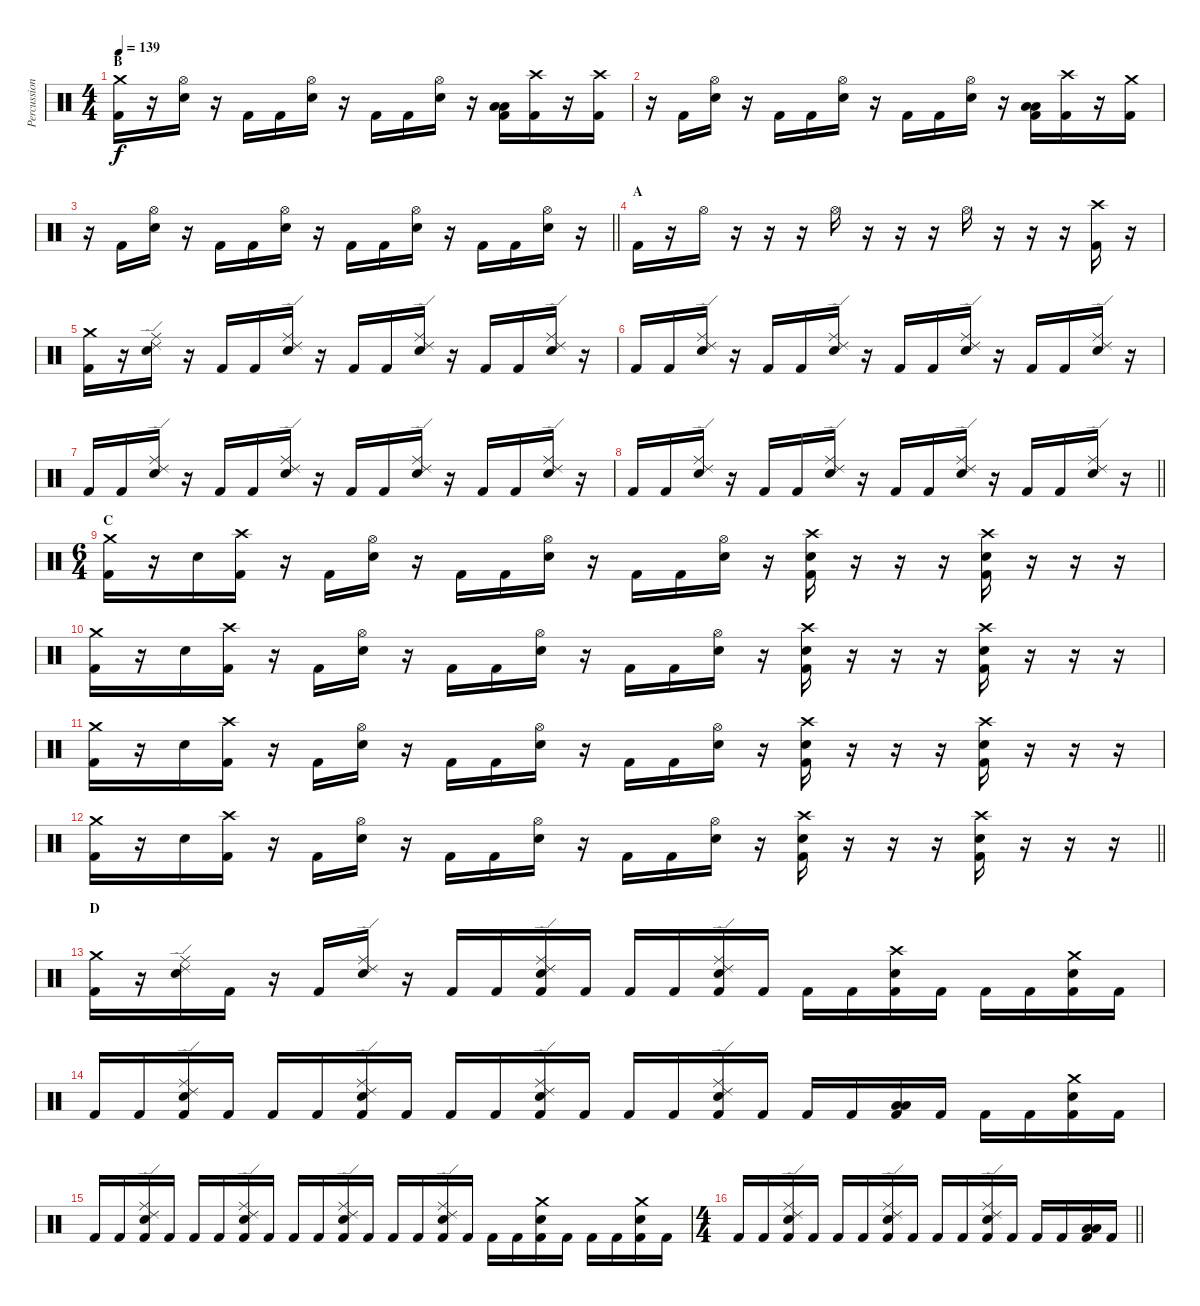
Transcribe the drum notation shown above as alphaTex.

\track ("Percussion" "Percussion") {instrument percussion}
\staff {score}
\articulation defaults
\ts (4 4)
\section ("" "B")
\tempo 139
\clef neutral
\ks c
("Crash medium (hit)" "Kick (hit) 2").16{dy f} r.16 ("Hi-Hat (open)" "Electric Snare (hit)").16 r.16 "Kick (hit) 2".16 "Kick (hit) 2".16 ("Hi-Hat (open)" "Electric Snare (hit)").16 r.16 "Kick (hit) 2".16 "Kick (hit) 2".16 ("Hi-Hat (open)" "Electric Snare (hit)").16 r.16 ("Low Tom (hit)" "Low Floor Tom (hit)" "Kick (hit) 2").16 ("Crash high (hit)" "Kick (hit) 2").16 r.16 ("Crash high (hit)" "Kick (hit) 2").16 |
r.16 "Kick (hit) 2".16 ("Hi-Hat (open)" "Electric Snare (hit)").16 r.16 "Kick (hit) 2".16 "Kick (hit) 2".16 ("Hi-Hat (open)" "Electric Snare (hit)").16 r.16 "Kick (hit) 2".16 "Kick (hit) 2".16 ("Hi-Hat (open)" "Electric Snare (hit)").16 r.16 ("Low Tom (hit)" "Low Floor Tom (hit)" "Kick (hit) 2").16 ("Crash high (hit)" "Kick (hit) 2").16 r.16 ("Crash medium (hit)" "Kick (hit) 2").16 |
\barLineRight lightlight
r.16 "Kick (hit) 2".16 ("Hi-Hat (open)" "Electric Snare (hit)").16 r.16 "Kick (hit) 2".16 "Kick (hit) 2".16 ("Hi-Hat (open)" "Electric Snare (hit)").16 r.16 "Kick (hit) 2".16 "Kick (hit) 2".16 ("Hi-Hat (open)" "Electric Snare (hit)").16 r.16 "Kick (hit) 2".16 "Kick (hit) 2".16 ("Hi-Hat (open)" "Electric Snare (hit)").16 r.16 |
\section ("" "A")
"Kick (hit) 2".16 r.16 "Hi-Hat (open)".16 r.16 r.16 r.16 "Hi-Hat (open)".16 r.16 r.16 r.16 "Hi-Hat (open)".16 r.16 r.16 r.16 ("Crash high (hit)" "Kick (hit) 2").16 r.16 |
("Crash medium (hit)" "Kick (hit) 2").16 r.16 ("Ride (middle)" "Ride (edge) 2" "Electric Snare (hit)").16 r.16 "Kick (hit) 2".16 "Kick (hit) 2".16 ("Ride (middle)" "Ride (edge) 2" "Electric Snare (hit)").16 r.16 "Kick (hit) 2".16 "Kick (hit) 2".16 ("Ride (middle)" "Ride (edge) 2" "Electric Snare (hit)").16 r.16 "Kick (hit) 2".16 "Kick (hit) 2".16 ("Ride (middle)" "Ride (edge) 2" "Electric Snare (hit)").16 r.16 |
"Kick (hit) 2".16 "Kick (hit) 2".16 ("Ride (middle)" "Ride (edge) 2" "Electric Snare (hit)").16 r.16 "Kick (hit) 2".16 "Kick (hit) 2".16 ("Ride (middle)" "Ride (edge) 2" "Electric Snare (hit)").16 r.16 "Kick (hit) 2".16 "Kick (hit) 2".16 ("Ride (middle)" "Ride (edge) 2" "Electric Snare (hit)").16 r.16 "Kick (hit) 2".16 "Kick (hit) 2".16 ("Ride (middle)" "Ride (edge) 2" "Electric Snare (hit)").16 r.16 |
"Kick (hit) 2".16 "Kick (hit) 2".16 ("Ride (middle)" "Ride (edge) 2" "Electric Snare (hit)").16 r.16 "Kick (hit) 2".16 "Kick (hit) 2".16 ("Ride (middle)" "Ride (edge) 2" "Electric Snare (hit)").16 r.16 "Kick (hit) 2".16 "Kick (hit) 2".16 ("Ride (middle)" "Ride (edge) 2" "Electric Snare (hit)").16 r.16 "Kick (hit) 2".16 "Kick (hit) 2".16 ("Ride (middle)" "Ride (edge) 2" "Electric Snare (hit)").16 r.16 |
\barLineRight lightlight "Kick (hit) 2".16 "Kick (hit) 2".16
("Ride (middle)" "Ride (edge) 2" "Electric Snare (hit)").16 r.16 "Kick (hit) 2".16 "Kick (hit) 2".16 ("Ride (middle)" "Ride (edge) 2" "Electric Snare (hit)").16 r.16 "Kick (hit) 2".16 "Kick (hit) 2".16 ("Ride (middle)" "Ride (edge) 2" "Electric Snare (hit)").16 r.16 "Kick (hit) 2".16 "Kick (hit) 2".16 ("Ride (middle)" "Ride (edge) 2" "Electric Snare (hit)").16 r.16 |
\ts (6 4)
\section ("" "C")
("Crash medium (hit)" "Kick (hit) 2").16 r.16 "Electric Snare (hit)".16 ("Crash high (hit)" "Kick (hit) 2").16 r.16 "Kick (hit) 2".16 ("Hi-Hat (open)" "Electric Snare (hit)").16 r.16 "Kick (hit) 2".16 "Kick (hit) 2".16 ("Hi-Hat (open)" "Electric Snare (hit)").16 r.16 "Kick (hit) 2".16 "Kick (hit) 2".16 ("Hi-Hat (open)" "Electric Snare (hit)").16 r.16 ("Crash high (hit)" "Electric Snare (hit)" "Kick (hit) 2").16 r.16 r.16 r.16 ("Crash high (hit)" "Electric Snare (hit)" "Kick (hit) 2").16 r.16 r.16 r.16 |
("Crash medium (hit)" "Kick (hit) 2").16 r.16 "Electric Snare (hit)".16 ("Crash high (hit)" "Kick (hit) 2").16 r.16 "Kick (hit) 2".16 ("Hi-Hat (open)" "Electric Snare (hit)").16 r.16 "Kick (hit) 2".16 "Kick (hit) 2".16 ("Hi-Hat (open)" "Electric Snare (hit)").16 r.16 "Kick (hit) 2".16 "Kick (hit) 2".16 ("Hi-Hat (open)" "Electric Snare (hit)").16 r.16 ("Crash high (hit)" "Electric Snare (hit)" "Kick (hit) 2").16 r.16 r.16 r.16 ("Crash high (hit)" "Electric Snare (hit)" "Kick (hit) 2").16 r.16 r.16 r.16 |
("Crash medium (hit)" "Kick (hit) 2").16 r.16 "Electric Snare (hit)".16 ("Crash high (hit)" "Kick (hit) 2").16 r.16 "Kick (hit) 2".16 ("Hi-Hat (open)" "Electric Snare (hit)").16 r.16 "Kick (hit) 2".16 "Kick (hit) 2".16 ("Hi-Hat (open)" "Electric Snare (hit)").16 r.16 "Kick (hit) 2".16 "Kick (hit) 2".16 ("Hi-Hat (open)" "Electric Snare (hit)").16 r.16 ("Crash high (hit)" "Electric Snare (hit)" "Kick (hit) 2").16 r.16 r.16 r.16 ("Crash high (hit)" "Electric Snare (hit)" "Kick (hit) 2").16 r.16 r.16 r.16 |
\barLineRight lightlight
("Crash medium (hit)" "Kick (hit) 2").16 r.16 "Electric Snare (hit)".16 ("Crash high (hit)" "Kick (hit) 2").16 r.16 "Kick (hit) 2".16 ("Hi-Hat (open)" "Electric Snare (hit)").16 r.16 "Kick (hit) 2".16 "Kick (hit) 2".16 ("Hi-Hat (open)" "Electric Snare (hit)").16 r.16 "Kick (hit) 2".16 "Kick (hit) 2".16 ("Hi-Hat (open)" "Electric Snare (hit)").16 r.16 ("Crash high (hit)" "Electric Snare (hit)" "Kick (hit) 2").16 r.16 r.16 r.16 ("Crash high (hit)" "Electric Snare (hit)" "Kick (hit) 2").16 r.16 r.16 r.16 |
\section ("" "D")
("Crash medium (hit)" "Kick (hit) 2").16 r.16 ("Ride (middle)" "Ride (edge) 2" "Electric Snare (hit)").16 "Kick (hit) 2".16 r.16 "Kick (hit) 2".16 ("Ride (middle)" "Ride (edge) 2" "Electric Snare (hit)").16 r.16 "Kick (hit) 2".16 "Kick (hit) 2".16 ("Ride (middle)" "Ride (edge) 2" "Electric Snare (hit)" "Kick (hit) 2").16 "Kick (hit) 2".16 "Kick (hit) 2".16 "Kick (hit) 2".16 ("Ride (middle)" "Ride (edge) 2" "Electric Snare (hit)" "Kick (hit) 2").16 "Kick (hit) 2".16 "Kick (hit) 2".16 "Kick (hit) 2".16 ("Crash high (hit)" "Electric Snare (hit)" "Kick (hit) 2").16 "Kick (hit) 2".16 "Kick (hit) 2".16 "Kick (hit) 2".16 ("Crash medium (hit)" "Electric Snare (hit)" "Kick (hit) 2").16 "Kick (hit) 2".16 |
"Kick (hit) 2".16 "Kick (hit) 2".16 ("Ride (middle)" "Ride (edge) 2" "Electric Snare (hit)" "Kick (hit) 2").16 "Kick (hit) 2".16 "Kick (hit) 2".16 "Kick (hit) 2".16 ("Ride (middle)" "Ride (edge) 2" "Electric Snare (hit)" "Kick (hit) 2").16 "Kick (hit) 2".16 "Kick (hit) 2".16 "Kick (hit) 2".16 ("Ride (middle)" "Ride (edge) 2" "Electric Snare (hit)" "Kick (hit) 2").16 "Kick (hit) 2".16 "Kick (hit) 2".16 "Kick (hit) 2".16 ("Ride (middle)" "Ride (edge) 2" "Electric Snare (hit)" "Kick (hit) 2").16 "Kick (hit) 2".16 "Kick (hit) 2".16 "Kick (hit) 2".16 ("Low Tom (hit)" "Low Floor Tom (hit)" "Kick (hit) 2").16 "Kick (hit) 2".16 "Kick (hit) 2".16 "Kick (hit) 2".16 ("Crash medium (hit)" "Electric Snare (hit)" "Kick (hit) 2").16 "Kick (hit) 2".16 |
"Kick (hit) 2".16 "Kick (hit) 2".16 ("Ride (middle)" "Ride (edge) 2" "Electric Snare (hit)" "Kick (hit) 2").16 "Kick (hit) 2".16 "Kick (hit) 2".16 "Kick (hit) 2".16 ("Ride (middle)" "Ride (edge) 2" "Electric Snare (hit)" "Kick (hit) 2").16 "Kick (hit) 2".16 "Kick (hit) 2".16 "Kick (hit) 2".16 ("Ride (middle)" "Ride (edge) 2" "Electric Snare (hit)" "Kick (hit) 2").16 "Kick (hit) 2".16 "Kick (hit) 2".16 "Kick (hit) 2".16 ("Ride (middle)" "Ride (edge) 2" "Electric Snare (hit)" "Kick (hit) 2").16 "Kick (hit) 2".16 "Kick (hit) 2".16 "Kick (hit) 2".16 ("Crash medium (hit)" "Electric Snare (hit)" "Kick (hit) 2").16 "Kick (hit) 2".16 "Kick (hit) 2".16 "Kick (hit) 2".16 ("Crash medium (hit)" "Electric Snare (hit)" "Kick (hit) 2").16 "Kick (hit) 2".16 |
\ts (4 4)
\barLineRight lightlight "Kick (hit) 2".16 "Kick (hit) 2".16
("Ride (middle)" "Ride (edge) 2" "Electric Snare (hit)" "Kick (hit) 2").16 "Kick (hit) 2".16 "Kick (hit) 2".16 "Kick (hit) 2".16 ("Ride (middle)" "Ride (edge) 2" "Electric Snare (hit)" "Kick (hit) 2").16 "Kick (hit) 2".16 "Kick (hit) 2".16 "Kick (hit) 2".16 ("Ride (middle)" "Ride (edge) 2" "Electric Snare (hit)" "Kick (hit) 2").16 "Kick (hit) 2".16 "Kick (hit) 2".16 "Kick (hit) 2".16 ("Low Tom (hit)" "Low Floor Tom (hit)" "Kick (hit) 2").16 "Kick (hit) 2".16
